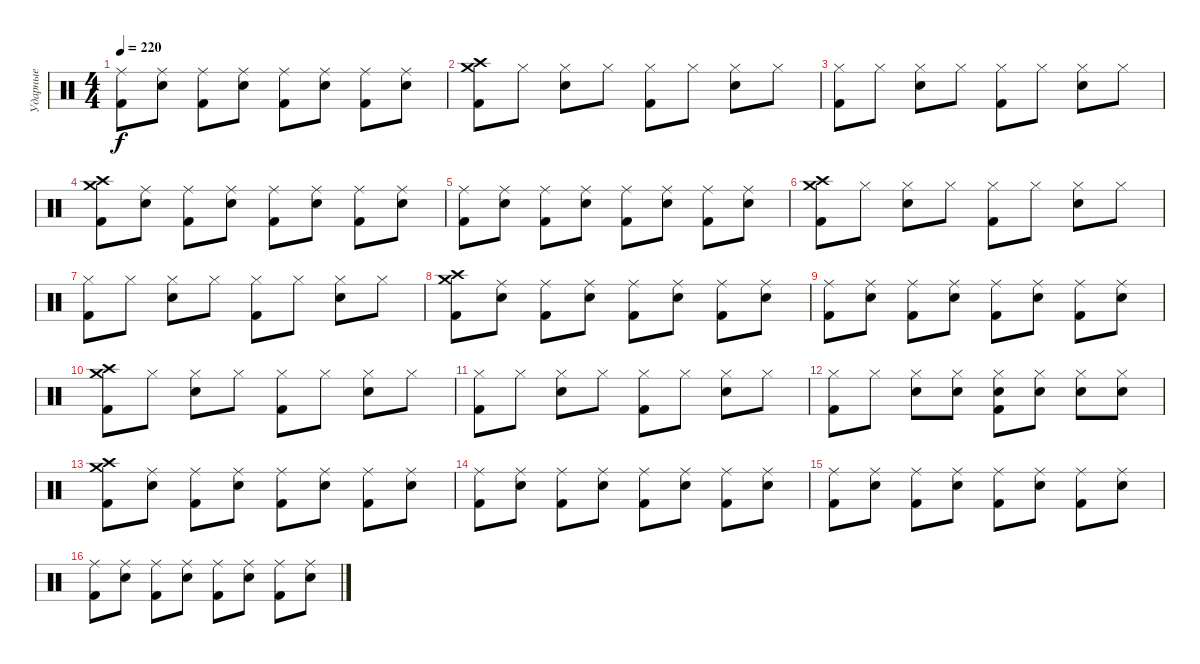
\track ("Ударные" "Ударные") {instrument percussion}
\staff {score}
\articulation defaults
\ts (4 4)
\tempo 220
\clef neutral
\ks c
("Ride (middle)" "Kick (hit) 2").8{dy f} ("Ride (middle)" "Snare (hit) 2").8 ("Ride (middle)" "Kick (hit) 2").8 ("Ride (middle)" "Snare (hit) 2").8 ("Ride (middle)" "Kick (hit) 2").8 ("Ride (middle)" "Snare (hit) 2").8 ("Ride (middle)" "Kick (hit) 2").8 ("Ride (middle)" "Snare (hit) 2").8 |
("Crash high (hit)" "Crash medium (hit)" "Kick (hit) 2").8 "Hi-Hat (closed)".8 ("Hi-Hat (closed)" "Snare (hit) 2").8 "Hi-Hat (closed)".8 ("Hi-Hat (closed)" "Kick (hit) 2").8 "Hi-Hat (closed)".8 ("Hi-Hat (closed)" "Snare (hit) 2").8 "Hi-Hat (closed)".8 |
("Hi-Hat (closed)" "Kick (hit) 2").8 "Hi-Hat (closed)".8 ("Hi-Hat (closed)" "Snare (hit) 2").8 "Hi-Hat (closed)".8 ("Hi-Hat (closed)" "Kick (hit) 2").8 "Hi-Hat (closed)".8 ("Hi-Hat (closed)" "Snare (hit) 2").8 "Hi-Hat (closed)".8 |
("Crash high (hit)" "Crash medium (hit)" "Kick (hit) 2").8 ("Ride (middle)" "Snare (hit) 2").8 ("Ride (middle)" "Kick (hit) 2").8 ("Ride (middle)" "Snare (hit) 2").8 ("Ride (middle)" "Kick (hit) 2").8 ("Ride (middle)" "Snare (hit) 2").8 ("Ride (middle)" "Kick (hit) 2").8 ("Ride (middle)" "Snare (hit) 2").8 |
("Ride (middle)" "Kick (hit) 2").8 ("Ride (middle)" "Snare (hit) 2").8 ("Ride (middle)" "Kick (hit) 2").8 ("Ride (middle)" "Snare (hit) 2").8 ("Ride (middle)" "Kick (hit) 2").8 ("Ride (middle)" "Snare (hit) 2").8 ("Ride (middle)" "Kick (hit) 2").8 ("Ride (middle)" "Snare (hit) 2").8 |
("Crash high (hit)" "Crash medium (hit)" "Kick (hit) 2").8 "Hi-Hat (closed)".8 ("Hi-Hat (closed)" "Snare (hit) 2").8 "Hi-Hat (closed)".8 ("Hi-Hat (closed)" "Kick (hit) 2").8 "Hi-Hat (closed)".8 ("Hi-Hat (closed)" "Snare (hit) 2").8 "Hi-Hat (closed)".8 |
("Hi-Hat (closed)" "Kick (hit) 2").8 "Hi-Hat (closed)".8 ("Hi-Hat (closed)" "Snare (hit) 2").8 "Hi-Hat (closed)".8 ("Hi-Hat (closed)" "Kick (hit) 2").8 "Hi-Hat (closed)".8 ("Hi-Hat (closed)" "Snare (hit) 2").8 "Hi-Hat (closed)".8 |
("Crash high (hit)" "Crash medium (hit)" "Kick (hit) 2").8 ("Ride (middle)" "Snare (hit) 2").8 ("Ride (middle)" "Kick (hit) 2").8 ("Ride (middle)" "Snare (hit) 2").8 ("Ride (middle)" "Kick (hit) 2").8 ("Ride (middle)" "Snare (hit) 2").8 ("Ride (middle)" "Kick (hit) 2").8 ("Ride (middle)" "Snare (hit) 2").8 |
("Ride (middle)" "Kick (hit) 2").8 ("Ride (middle)" "Snare (hit) 2").8 ("Ride (middle)" "Kick (hit) 2").8 ("Ride (middle)" "Snare (hit) 2").8 ("Ride (middle)" "Kick (hit) 2").8 ("Ride (middle)" "Snare (hit) 2").8 ("Ride (middle)" "Kick (hit) 2").8 ("Ride (middle)" "Snare (hit) 2").8 |
("Crash high (hit)" "Crash medium (hit)" "Kick (hit) 2").8 "Hi-Hat (closed)".8 ("Hi-Hat (closed)" "Snare (hit) 2").8 "Hi-Hat (closed)".8 ("Hi-Hat (closed)" "Kick (hit) 2").8 "Hi-Hat (closed)".8 ("Hi-Hat (closed)" "Snare (hit) 2").8 "Hi-Hat (closed)".8 |
("Hi-Hat (closed)" "Kick (hit) 2").8 "Hi-Hat (closed)".8 ("Hi-Hat (closed)" "Snare (hit) 2").8 "Hi-Hat (closed)".8 ("Hi-Hat (closed)" "Kick (hit) 2").8 "Hi-Hat (closed)".8 ("Hi-Hat (closed)" "Snare (hit) 2").8 "Hi-Hat (closed)".8 |
("Hi-Hat (closed)" "Kick (hit) 2").8 "Hi-Hat (closed)".8 ("Hi-Hat (closed)" "Snare (hit) 2").8 ("Hi-Hat (closed)" "Snare (hit) 2").8 ("Hi-Hat (closed)" "Snare (hit) 2" "Kick (hit) 2").8 ("Hi-Hat (closed)" "Snare (hit) 2").8 ("Hi-Hat (closed)" "Snare (hit) 2").8 ("Hi-Hat (closed)" "Snare (hit) 2").8 |
("Crash high (hit)" "Crash medium (hit)" "Kick (hit) 2").8 ("Ride (middle)" "Snare (hit) 2").8 ("Ride (middle)" "Kick (hit) 2").8 ("Ride (middle)" "Snare (hit) 2").8 ("Ride (middle)" "Kick (hit) 2").8 ("Ride (middle)" "Snare (hit) 2").8 ("Ride (middle)" "Kick (hit) 2").8 ("Ride (middle)" "Snare (hit) 2").8 |
("Ride (middle)" "Kick (hit) 2").8 ("Ride (middle)" "Snare (hit) 2").8 ("Ride (middle)" "Kick (hit) 2").8 ("Ride (middle)" "Snare (hit) 2").8 ("Ride (middle)" "Kick (hit) 2").8 ("Ride (middle)" "Snare (hit) 2").8 ("Ride (middle)" "Kick (hit) 2").8 ("Ride (middle)" "Snare (hit) 2").8 |
("Ride (middle)" "Kick (hit) 2").8 ("Ride (middle)" "Snare (hit) 2").8 ("Ride (middle)" "Kick (hit) 2").8 ("Ride (middle)" "Snare (hit) 2").8 ("Ride (middle)" "Kick (hit) 2").8 ("Ride (middle)" "Snare (hit) 2").8 ("Ride (middle)" "Kick (hit) 2").8 ("Ride (middle)" "Snare (hit) 2").8 |
("Ride (middle)" "Kick (hit) 2").8 ("Ride (middle)" "Snare (hit) 2").8 ("Ride (middle)" "Kick (hit) 2").8 ("Ride (middle)" "Snare (hit) 2").8 ("Ride (middle)" "Kick (hit) 2").8 ("Ride (middle)" "Snare (hit) 2").8 ("Ride (middle)" "Kick (hit) 2").8 ("Ride (middle)" "Snare (hit) 2").8
